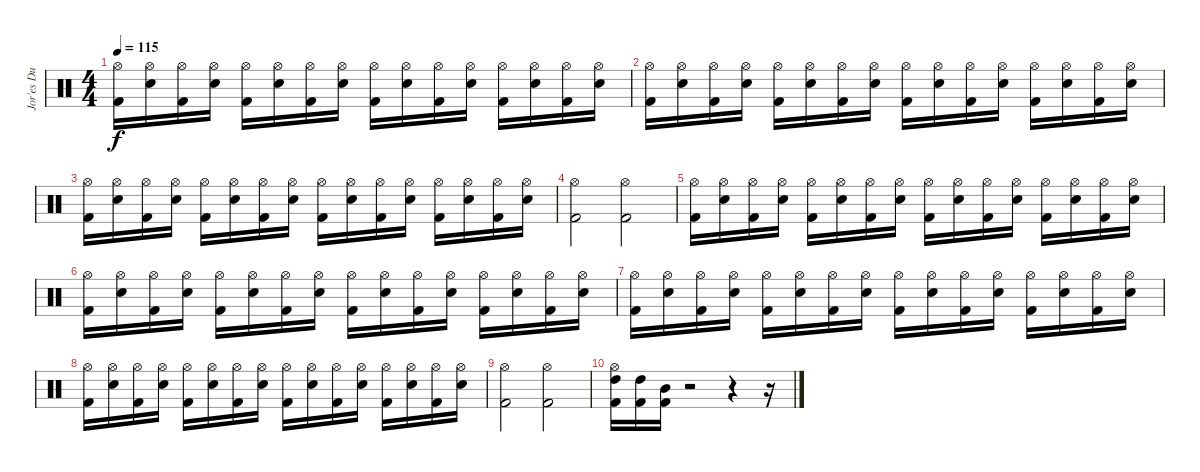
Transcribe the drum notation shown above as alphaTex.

\track ("Jor'es Du True" "Jor'es Du ") {instrument percussion}
\staff {score}
\articulation defaults
\ts (4 4)
\tempo 115
\clef neutral
\ks c
("Hi-Hat (open)" "Kick (hit) 2").16{dy f} ("Hi-Hat (open)" "Electric Snare (hit)").16 ("Hi-Hat (open)" "Kick (hit) 2").16 ("Hi-Hat (open)" "Electric Snare (hit)").16 ("Hi-Hat (open)" "Kick (hit) 2").16 ("Hi-Hat (open)" "Electric Snare (hit)").16 ("Hi-Hat (open)" "Kick (hit) 2").16 ("Hi-Hat (open)" "Electric Snare (hit)").16 ("Hi-Hat (open)" "Kick (hit) 2").16 ("Hi-Hat (open)" "Electric Snare (hit)").16 ("Hi-Hat (open)" "Kick (hit) 2").16 ("Hi-Hat (open)" "Electric Snare (hit)").16 ("Hi-Hat (open)" "Kick (hit) 2").16 ("Hi-Hat (open)" "Electric Snare (hit)").16 ("Hi-Hat (open)" "Kick (hit) 2").16 ("Hi-Hat (open)" "Electric Snare (hit)").16 |
("Hi-Hat (open)" "Kick (hit) 2").16 ("Hi-Hat (open)" "Electric Snare (hit)").16 ("Hi-Hat (open)" "Kick (hit) 2").16 ("Hi-Hat (open)" "Electric Snare (hit)").16 ("Hi-Hat (open)" "Kick (hit) 2").16 ("Hi-Hat (open)" "Electric Snare (hit)").16 ("Hi-Hat (open)" "Kick (hit) 2").16 ("Hi-Hat (open)" "Electric Snare (hit)").16 ("Hi-Hat (open)" "Kick (hit) 2").16 ("Hi-Hat (open)" "Electric Snare (hit)").16 ("Hi-Hat (open)" "Kick (hit) 2").16 ("Hi-Hat (open)" "Electric Snare (hit)").16 ("Hi-Hat (open)" "Kick (hit) 2").16 ("Hi-Hat (open)" "Electric Snare (hit)").16 ("Hi-Hat (open)" "Kick (hit) 2").16 ("Hi-Hat (open)" "Electric Snare (hit)").16 |
("Hi-Hat (open)" "Kick (hit) 2").16 ("Hi-Hat (open)" "Electric Snare (hit)").16 ("Hi-Hat (open)" "Kick (hit) 2").16 ("Hi-Hat (open)" "Electric Snare (hit)").16 ("Hi-Hat (open)" "Kick (hit) 2").16 ("Hi-Hat (open)" "Electric Snare (hit)").16 ("Hi-Hat (open)" "Kick (hit) 2").16 ("Hi-Hat (open)" "Electric Snare (hit)").16 ("Hi-Hat (open)" "Kick (hit) 2").16 ("Hi-Hat (open)" "Electric Snare (hit)").16 ("Hi-Hat (open)" "Kick (hit) 2").16 ("Hi-Hat (open)" "Electric Snare (hit)").16 ("Hi-Hat (open)" "Kick (hit) 2").16 ("Hi-Hat (open)" "Electric Snare (hit)").16 ("Hi-Hat (open)" "Kick (hit) 2").16 ("Hi-Hat (open)" "Electric Snare (hit)").16 |
("Hi-Hat (open)" "Kick (hit) 2").2 ("Hi-Hat (open)" "Kick (hit) 2").2 |
("Hi-Hat (open)" "Kick (hit) 2").16 ("Hi-Hat (open)" "Electric Snare (hit)").16 ("Hi-Hat (open)" "Kick (hit) 2").16 ("Hi-Hat (open)" "Electric Snare (hit)").16 ("Hi-Hat (open)" "Kick (hit) 2").16 ("Hi-Hat (open)" "Electric Snare (hit)").16 ("Hi-Hat (open)" "Kick (hit) 2").16 ("Hi-Hat (open)" "Electric Snare (hit)").16 ("Hi-Hat (open)" "Kick (hit) 2").16 ("Hi-Hat (open)" "Electric Snare (hit)").16 ("Hi-Hat (open)" "Kick (hit) 2").16 ("Hi-Hat (open)" "Electric Snare (hit)").16 ("Hi-Hat (open)" "Kick (hit) 2").16 ("Hi-Hat (open)" "Electric Snare (hit)").16 ("Hi-Hat (open)" "Kick (hit) 2").16 ("Hi-Hat (open)" "Electric Snare (hit)").16 |
("Hi-Hat (open)" "Kick (hit) 2").16 ("Hi-Hat (open)" "Electric Snare (hit)").16 ("Hi-Hat (open)" "Kick (hit) 2").16 ("Hi-Hat (open)" "Electric Snare (hit)").16 ("Hi-Hat (open)" "Kick (hit) 2").16 ("Hi-Hat (open)" "Electric Snare (hit)").16 ("Hi-Hat (open)" "Kick (hit) 2").16 ("Hi-Hat (open)" "Electric Snare (hit)").16 ("Hi-Hat (open)" "Kick (hit) 2").16 ("Hi-Hat (open)" "Electric Snare (hit)").16 ("Hi-Hat (open)" "Kick (hit) 2").16 ("Hi-Hat (open)" "Electric Snare (hit)").16 ("Hi-Hat (open)" "Kick (hit) 2").16 ("Hi-Hat (open)" "Electric Snare (hit)").16 ("Hi-Hat (open)" "Kick (hit) 2").16 ("Hi-Hat (open)" "Electric Snare (hit)").16 |
("Hi-Hat (open)" "Kick (hit) 2").16 ("Hi-Hat (open)" "Electric Snare (hit)").16 ("Hi-Hat (open)" "Kick (hit) 2").16 ("Hi-Hat (open)" "Electric Snare (hit)").16 ("Hi-Hat (open)" "Kick (hit) 2").16 ("Hi-Hat (open)" "Electric Snare (hit)").16 ("Hi-Hat (open)" "Kick (hit) 2").16 ("Hi-Hat (open)" "Electric Snare (hit)").16 ("Hi-Hat (open)" "Kick (hit) 2").16 ("Hi-Hat (open)" "Electric Snare (hit)").16 ("Hi-Hat (open)" "Kick (hit) 2").16 ("Hi-Hat (open)" "Electric Snare (hit)").16 ("Hi-Hat (open)" "Kick (hit) 2").16 ("Hi-Hat (open)" "Electric Snare (hit)").16 ("Hi-Hat (open)" "Kick (hit) 2").16 ("Hi-Hat (open)" "Electric Snare (hit)").16 |
("Hi-Hat (open)" "Kick (hit) 2").16 ("Hi-Hat (open)" "Electric Snare (hit)").16 ("Hi-Hat (open)" "Kick (hit) 2").16 ("Hi-Hat (open)" "Electric Snare (hit)").16 ("Hi-Hat (open)" "Kick (hit) 2").16 ("Hi-Hat (open)" "Electric Snare (hit)").16 ("Hi-Hat (open)" "Kick (hit) 2").16 ("Hi-Hat (open)" "Electric Snare (hit)").16 ("Hi-Hat (open)" "Kick (hit) 2").16 ("Hi-Hat (open)" "Electric Snare (hit)").16 ("Hi-Hat (open)" "Kick (hit) 2").16 ("Hi-Hat (open)" "Electric Snare (hit)").16 ("Hi-Hat (open)" "Kick (hit) 2").16 ("Hi-Hat (open)" "Electric Snare (hit)").16 ("Hi-Hat (open)" "Kick (hit) 2").16 ("Hi-Hat (open)" "Electric Snare (hit)").16 |
("Hi-Hat (open)" "Kick (hit) 2").2 ("Hi-Hat (open)" "Kick (hit) 2").2 |
("High Tom (hit)" "Hi-Hat (open)" "Kick (hit) 2").16 ("High Tom (hit)" "Kick (hit) 2").16 ("Mid Tom (hit)" "Kick (hit) 2").16 r.2 r.4 r.16
